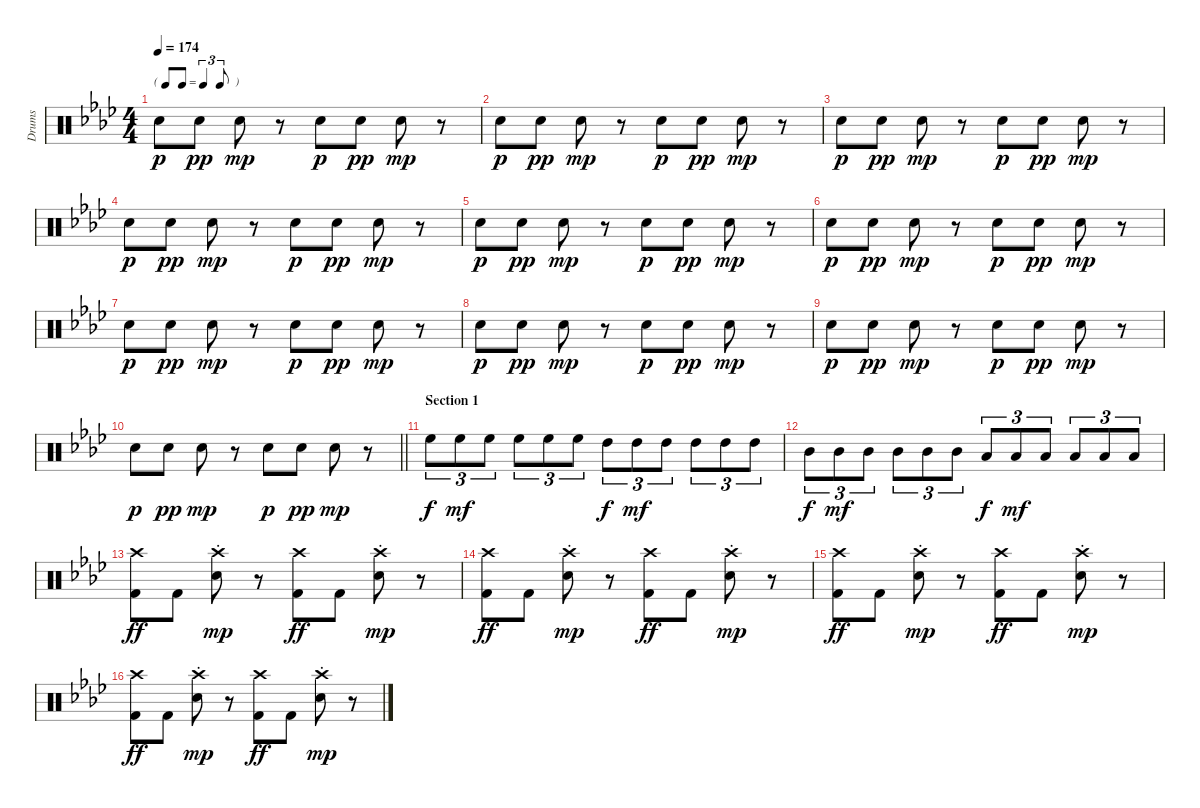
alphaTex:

\track ("Drums" "Drums") {instrument percussion}
\staff {score}
\articulation defaults
\ts (4 4)
\tf triplet8th
\tempo 174
\clef neutral
\ks ab "Snare (hit) 2".8{dy p} "Snare (hit) 2".8{dy pp} "Snare (hit) 2".8{dy mp}
r.8 "Snare (hit) 2".8{dy p} "Snare (hit) 2".8{dy pp} "Snare (hit) 2".8{dy mp} r.8 |
"Snare (hit) 2".8{dy p} "Snare (hit) 2".8{dy pp} "Snare (hit) 2".8{dy mp} r.8 "Snare (hit) 2".8{dy p} "Snare (hit) 2".8{dy pp} "Snare (hit) 2".8{dy mp} r.8 |
"Snare (hit) 2".8{dy p} "Snare (hit) 2".8{dy pp} "Snare (hit) 2".8{dy mp} r.8 "Snare (hit) 2".8{dy p} "Snare (hit) 2".8{dy pp} "Snare (hit) 2".8{dy mp} r.8 |
"Snare (hit) 2".8{dy p} "Snare (hit) 2".8{dy pp} "Snare (hit) 2".8{dy mp} r.8 "Snare (hit) 2".8{dy p} "Snare (hit) 2".8{dy pp} "Snare (hit) 2".8{dy mp} r.8 |
"Snare (hit) 2".8{dy p} "Snare (hit) 2".8{dy pp} "Snare (hit) 2".8{dy mp} r.8 "Snare (hit) 2".8{dy p} "Snare (hit) 2".8{dy pp} "Snare (hit) 2".8{dy mp} r.8 |
"Snare (hit) 2".8{dy p} "Snare (hit) 2".8{dy pp} "Snare (hit) 2".8{dy mp} r.8 "Snare (hit) 2".8{dy p} "Snare (hit) 2".8{dy pp} "Snare (hit) 2".8{dy mp} r.8 |
"Snare (hit) 2".8{dy p} "Snare (hit) 2".8{dy pp} "Snare (hit) 2".8{dy mp} r.8 "Snare (hit) 2".8{dy p} "Snare (hit) 2".8{dy pp} "Snare (hit) 2".8{dy mp} r.8 |
"Snare (hit) 2".8{dy p} "Snare (hit) 2".8{dy pp} "Snare (hit) 2".8{dy mp} r.8 "Snare (hit) 2".8{dy p} "Snare (hit) 2".8{dy pp} "Snare (hit) 2".8{dy mp} r.8 |
"Snare (hit) 2".8{dy p} "Snare (hit) 2".8{dy pp} "Snare (hit) 2".8{dy mp} r.8 "Snare (hit) 2".8{dy p} "Snare (hit) 2".8{dy pp} "Snare (hit) 2".8{dy mp} r.8 |
\barLineRight lightlight "Snare (hit) 2".8{dy p} "Snare (hit) 2".8{dy pp} "Snare (hit) 2".8{dy mp}
r.8 "Snare (hit) 2".8{dy p} "Snare (hit) 2".8{dy pp} "Snare (hit) 2".8{dy mp} r.8 |
\section ("" "Section 1")
"High Floor Tom (hit)".8{tu (3 2) dy f} "High Floor Tom (hit)".8{tu (3 2) dy mf} "High Floor Tom (hit)".8{tu (3 2)} "High Floor Tom (hit)".8{tu (3 2)} "High Floor Tom (hit)".8{tu (3 2)} "High Floor Tom (hit)".8{tu (3 2)} "High Tom (hit)".8{tu (3 2) dy f} "High Tom (hit)".8{tu (3 2) dy mf} "High Tom (hit)".8{tu (3 2)} "High Tom (hit)".8{tu (3 2)} "High Tom (hit)".8{tu (3 2)} "High Tom (hit)".8{tu (3 2)} |
"Mid Tom (hit)".8{tu (3 2) dy f} "Mid Tom (hit)".8{tu (3 2) dy mf} "Mid Tom (hit)".8{tu (3 2)} "Mid Tom (hit)".8{tu (3 2)} "Mid Tom (hit)".8{tu (3 2)} "Mid Tom (hit)".8{tu (3 2)} "Low Tom (hit)".8{tu (3 2) dy f} "Low Tom (hit)".8{tu (3 2) dy mf} "Low Tom (hit)".8{tu (3 2)} "Low Tom (hit)".8{tu (3 2)} "Low Tom (hit)".8{tu (3 2)} "Low Tom (hit)".8{tu (3 2)} |
("Crash high (hit)" "Kick (hit) 2").8{dy ff} "Kick (hit) 2".8 ("Crash high (hit)" "Snare (hit) 2"{st}).8{dy mp} r.8 ("Crash high (hit)" "Kick (hit) 2").8{dy ff} "Kick (hit) 2".8 ("Crash high (hit)" "Snare (hit) 2"{st}).8{dy mp} r.8 |
("Crash high (hit)" "Kick (hit) 2").8{dy ff} "Kick (hit) 2".8 ("Crash high (hit)" "Snare (hit) 2"{st}).8{dy mp} r.8 ("Crash high (hit)" "Kick (hit) 2").8{dy ff} "Kick (hit) 2".8 ("Crash high (hit)" "Snare (hit) 2"{st}).8{dy mp} r.8 |
("Crash high (hit)" "Kick (hit) 2").8{dy ff} "Kick (hit) 2".8 ("Crash high (hit)" "Snare (hit) 2"{st}).8{dy mp} r.8 ("Crash high (hit)" "Kick (hit) 2").8{dy ff} "Kick (hit) 2".8 ("Crash high (hit)" "Snare (hit) 2"{st}).8{dy mp} r.8 |
("Crash high (hit)" "Kick (hit) 2").8{dy ff} "Kick (hit) 2".8 ("Crash high (hit)" "Snare (hit) 2"{st}).8{dy mp} r.8 ("Crash high (hit)" "Kick (hit) 2").8{dy ff} "Kick (hit) 2".8 ("Crash high (hit)" "Snare (hit) 2"{st}).8{dy mp} r.8
